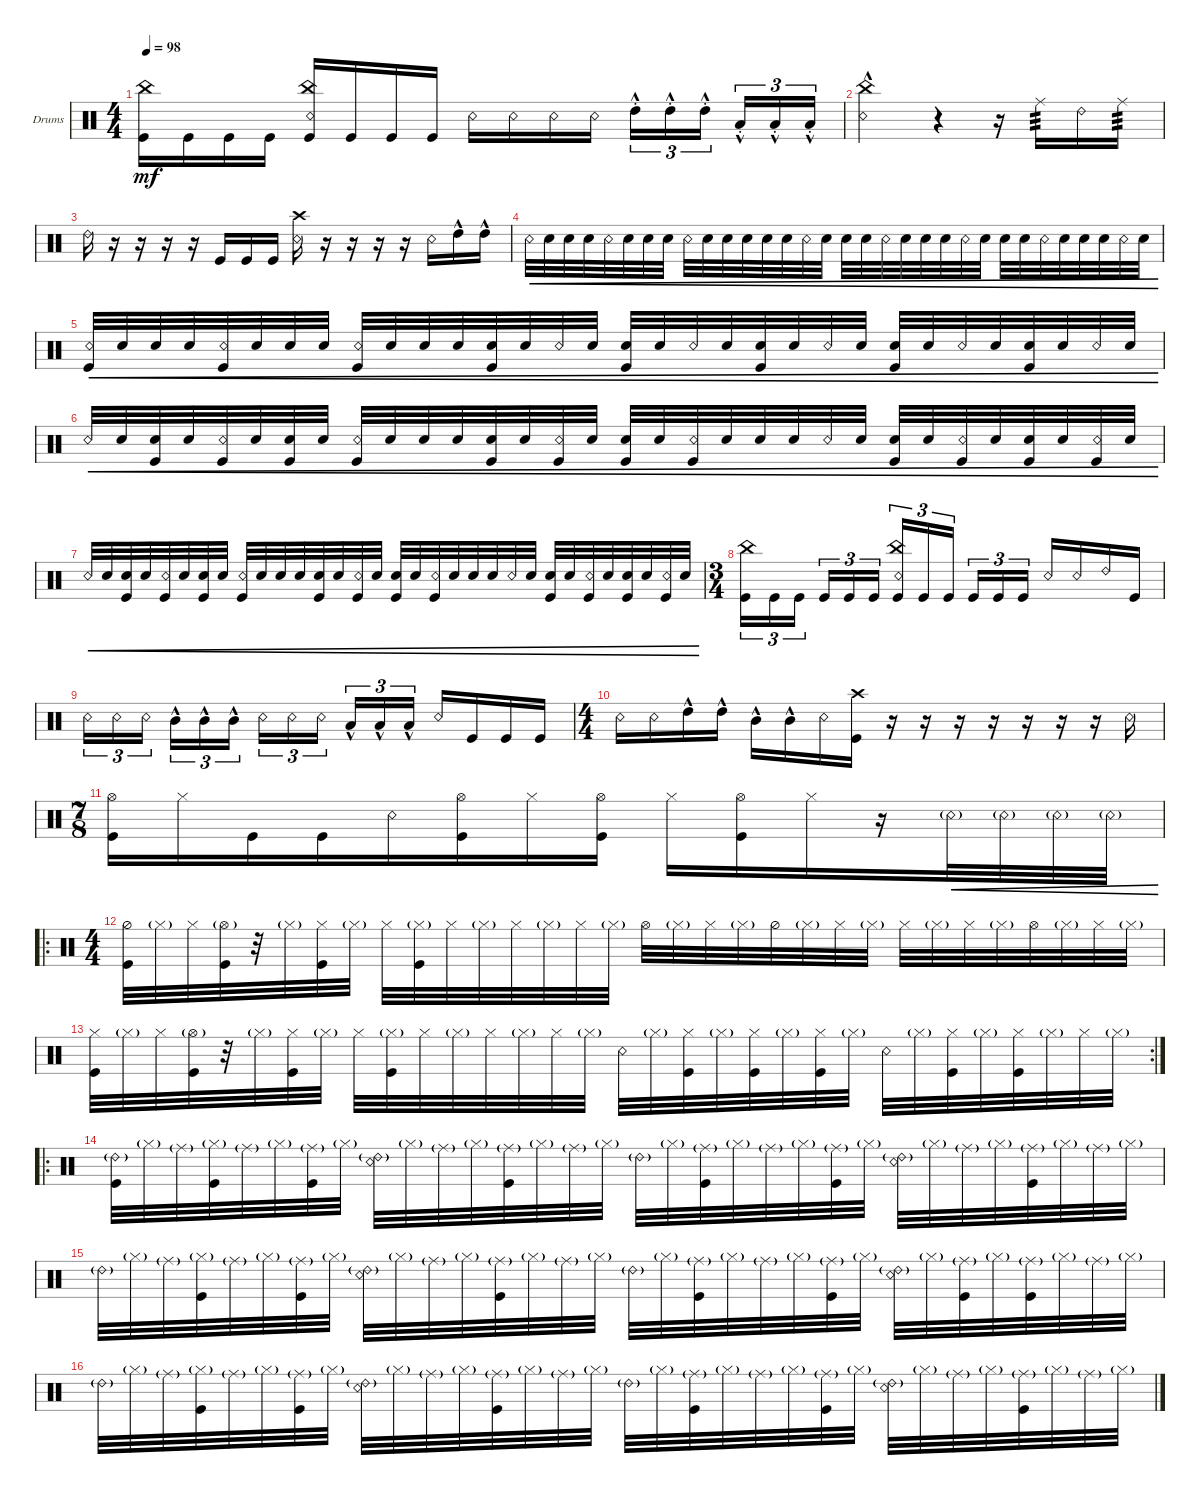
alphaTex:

\defaultSystemsLayout 4
\bracketExtendMode groupsimilarinstruments
\multiBarRest
\firstSystemTrackNameOrientation horizontal
\otherSystemsTrackNameOrientation horizontal
\track ("Drumkit" "Drums") {instrument percussion}
\staff {score}
\articulation defaults
\ts (4 4)
\tempo 98
\clef neutral
\ks c
("Kick (hit)" "China (hit)").16{dy mf} "Kick (hit)".16 "Kick (hit)".16 "Kick (hit)".16 ("Kick (hit)" "China (hit)" "Snare (rim shot)").16 "Kick (hit)".16 "Kick (hit)".16 "Kick (hit)".16 "Snare (rim shot)".16 "Snare (rim shot)".16 "Snare (rim shot)".16 "Snare (rim shot)".16 "High Tom (hit)"{hac st}.16{tu (3 2)} "High Tom (hit)"{hac st}.16{tu (3 2)} "High Tom (hit)"{hac st}.16{tu (3 2)} "Low Tom (hit)"{hac st}.16{tu (3 2)} "Low Tom (hit)"{hac st}.16{tu (3 2)} "Low Tom (hit)"{hac st}.16{tu (3 2)} |
("Snare (rim shot)"{hac} "China (hit)").2 r.4 r.16 "Ride (middle)".16{tp 3} "Ride (bell) 2".16 "Ride (middle)".16{tp 3} |
"Ride (bell) 2".16 r.16 r.16 r.16 r.16 "Kick (hit)".16 "Kick (hit)".16 "Kick (hit)".16 ("Snare (rim shot)" "Crash high (hit)").16 r.16 r.16 r.16 r.16 "Snare (rim shot)".16 "High Tom (hit)"{hac}.16 "High Tom (hit)"{hac}.16 |
"Snare (rim shot)".32{cre} "Snare (hit) 2".32{cre} "Snare (hit) 2".32{cre} "Snare (hit) 2".32{cre} "Snare (rim shot)".32{cre} "Snare (hit) 2".32{cre} "Snare (hit) 2".32{cre} "Snare (hit) 2".32{cre} "Snare (rim shot)".32{cre} "Snare (hit) 2".32{cre} "Snare (hit) 2".32{cre} "Snare (hit) 2".32{cre} "Snare (hit) 2".32{cre} "Snare (hit) 2".32{cre} "Snare (rim shot)".32{cre} "Snare (hit) 2".32{cre} "Snare (hit) 2".32{cre} "Snare (hit) 2".32{cre} "Snare (rim shot)".32{cre} "Snare (hit) 2".32{cre} "Snare (hit) 2".32{cre} "Snare (hit) 2".32{cre} "Snare (rim shot)".32{cre} "Snare (hit) 2".32{cre} "Snare (hit) 2".32{cre} "Snare (hit) 2".32{cre} "Snare (rim shot)".32{cre} "Snare (hit) 2".32{cre} "Snare (hit) 2".32{cre} "Snare (hit) 2".32{cre} "Snare (rim shot)".32{cre} "Snare (hit) 2".32{cre} |
("Snare (rim shot)" "Kick (hit)").32{cre} "Snare (hit) 2".32{cre} "Snare (hit) 2".32{cre} "Snare (hit) 2".32{cre} ("Snare (rim shot)" "Kick (hit)").32{cre} "Snare (hit) 2".32{cre} "Snare (hit) 2".32{cre} "Snare (hit) 2".32{cre} ("Snare (rim shot)" "Kick (hit)").32{cre} "Snare (hit) 2".32{cre} "Snare (hit) 2".32{cre} "Snare (hit) 2".32{cre} ("Snare (hit) 2" "Kick (hit)").32{cre} "Snare (hit) 2".32{cre} "Snare (rim shot)".32{cre} "Snare (hit) 2".32{cre} ("Snare (hit) 2" "Kick (hit)").32{cre} "Snare (hit) 2".32{cre} "Snare (rim shot)".32{cre} "Snare (hit) 2".32{cre} ("Snare (hit) 2" "Kick (hit)").32{cre} "Snare (hit) 2".32{cre} "Snare (rim shot)".32{cre} "Snare (hit) 2".32{cre} ("Snare (hit) 2" "Kick (hit)").32{cre} "Snare (hit) 2".32{cre} "Snare (rim shot)".32{cre} "Snare (hit) 2".32{cre} ("Snare (hit) 2" "Kick (hit)").32{cre} "Snare (hit) 2".32{cre} "Snare (rim shot)".32{cre} "Snare (hit) 2".32{cre} |
"Snare (rim shot)".32{cre} "Snare (hit) 2".32{cre} ("Snare (hit) 2" "Kick (hit)").32{cre} "Snare (hit) 2".32{cre} ("Snare (rim shot)" "Kick (hit)").32{cre} "Snare (hit) 2".32{cre} ("Snare (hit) 2" "Kick (hit)").32{cre} "Snare (hit) 2".32{cre} ("Snare (rim shot)" "Kick (hit)").32{cre} "Snare (hit) 2".32{cre} "Snare (hit) 2".32{cre} "Snare (hit) 2".32{cre} ("Snare (hit) 2" "Kick (hit)").32{cre} "Snare (hit) 2".32{cre} ("Snare (rim shot)" "Kick (hit)").32{cre} "Snare (hit) 2".32{cre} ("Snare (hit) 2" "Kick (hit)").32{cre} "Snare (hit) 2".32{cre} ("Snare (rim shot)" "Kick (hit)").32{cre} "Snare (hit) 2".32{cre} "Snare (hit) 2".32{cre} "Snare (hit) 2".32{cre} "Snare (rim shot)".32{cre} "Snare (hit) 2".32{cre} ("Snare (hit) 2" "Kick (hit)").32{cre} "Snare (hit) 2".32{cre} ("Snare (rim shot)" "Kick (hit)").32{cre} "Snare (hit) 2".32{cre} ("Snare (hit) 2" "Kick (hit)").32{cre} "Snare (hit) 2".32{cre} ("Snare (rim shot)" "Kick (hit)").32{cre} "Snare (hit) 2".32{cre} |
"Snare (rim shot)".32{cre} "Snare (hit) 2".32{cre} ("Snare (hit) 2" "Kick (hit)").32{cre} "Snare (hit) 2".32{cre} ("Snare (rim shot)" "Kick (hit)").32{cre} "Snare (hit) 2".32{cre} ("Snare (hit) 2" "Kick (hit)").32{cre} "Snare (hit) 2".32{cre} ("Snare (rim shot)" "Kick (hit)").32{cre} "Snare (hit) 2".32{cre} "Snare (hit) 2".32{cre} "Snare (hit) 2".32{cre} ("Snare (hit) 2" "Kick (hit)").32{cre} "Snare (hit) 2".32{cre} ("Snare (rim shot)" "Kick (hit)").32{cre} "Snare (hit) 2".32{cre} ("Snare (hit) 2" "Kick (hit)").32{cre} "Snare (hit) 2".32{cre} ("Snare (rim shot)" "Kick (hit)").32{cre} "Snare (hit) 2".32{cre} "Snare (hit) 2".32{cre} "Snare (hit) 2".32{cre} "Snare (rim shot)".32{cre} "Snare (hit) 2".32{cre} ("Snare (hit) 2" "Kick (hit)").32{cre} "Snare (hit) 2".32{cre} ("Snare (rim shot)" "Kick (hit)").32{cre} "Snare (hit) 2".32{cre} ("Snare (hit) 2" "Kick (hit)").32{cre} "Snare (hit) 2".32{cre} ("Snare (rim shot)" "Kick (hit)").32{cre} "Snare (hit) 2".32{cre} |
\ts (3 4)
("Kick (hit)" "China (hit)").16{tu (3 2)} "Kick (hit)".16{tu (3 2)} "Kick (hit)".16{tu (3 2)} "Kick (hit)".16{tu (3 2)} "Kick (hit)".16{tu (3 2)} "Kick (hit)".16{tu (3 2)} ("Kick (hit)" "China (hit)" "Snare (rim shot)").16{tu (3 2)} "Kick (hit)".16{tu (3 2)} "Kick (hit)".16{tu (3 2)} "Kick (hit)".16{tu (3 2)} "Kick (hit)".16{tu (3 2)} "Kick (hit)".16{tu (3 2)} "Snare (rim shot)".16 "Snare (rim shot)".16 "Ride (bell) 2".16 "Kick (hit)".16 |
"Snare (rim shot)".16{tu (3 2)} "Snare (rim shot)".16{tu (3 2)} "Snare (rim shot)".16{tu (3 2)} "Mid Tom (hit)"{hac}.16{tu (3 2)} "Mid Tom (hit)"{hac}.16{tu (3 2)} "Mid Tom (hit)"{hac}.16{tu (3 2)} "Snare (rim shot)".16{tu (3 2)} "Snare (rim shot)".16{tu (3 2)} "Snare (rim shot)".16{tu (3 2)} "Low Tom (hit)"{hac}.16{tu (3 2)} "Low Tom (hit)"{hac}.16{tu (3 2)} "Low Tom (hit)"{hac}.16{tu (3 2)} "Snare (rim shot)".16 "Kick (hit)".16 "Kick (hit)".16 "Kick (hit)".16 |
\ts (4 4)
"Snare (rim shot)".16 "Snare (rim shot)".16 "High Tom (hit)"{hac}.16 "High Tom (hit)"{hac}.16 "Mid Tom (hit)"{hac}.16 "Mid Tom (hit)"{hac}.16 "Snare (rim shot)".16 ("Crash high (hit)" "Kick (hit)").16 r.16 r.16 r.16 r.16 r.16 r.16 r.16 "Snare (rim shot)".16 |
\ts (7 8)
("Kick (hit)" "Hi-Hat (open)").16 "Hi-Hat (closed)".16 "Kick (hit)".16 "Kick (hit)".16 "Snare (rim shot)".16 ("Kick (hit)" "Hi-Hat (open)").16 "Hi-Hat (closed)".16 ("Kick (hit)" "Hi-Hat (open)").16 "Hi-Hat (closed)".16 ("Kick (hit)" "Hi-Hat (open)").16 "Hi-Hat (closed)".16 r.16 "Snare (rim shot)"{g}.32{cre} "Snare (rim shot)"{g}.32{cre} "Snare (rim shot)"{g}.32{cre} "Snare (rim shot)"{g}.32{cre} |
\ro
\ts (4 4)
("Hi-Hat (half)" "Kick (hit)").32 "Hi-Hat (closed)"{g}.32 "Hi-Hat (closed)".32 ("Hi-Hat (open)"{g} "Kick (hit)").32 r.32 "Hi-Hat (closed)"{g}.32 ("Hi-Hat (closed)" "Kick (hit)").32 "Hi-Hat (closed)"{g}.32 "Hi-Hat (closed)".32 ("Hi-Hat (closed)"{g} "Kick (hit)").32 "Hi-Hat (closed)".32 "Hi-Hat (closed)"{g}.32 "Hi-Hat (closed)".32 "Hi-Hat (closed)"{g}.32 "Hi-Hat (closed)".32 "Hi-Hat (closed)"{g}.32 "Hi-Hat (open)".32 "Hi-Hat (closed)"{g}.32 "Hi-Hat (closed)".32 "Hi-Hat (closed)"{g}.32 "Hi-Hat (half)".32 "Hi-Hat (closed)"{g}.32 "Hi-Hat (closed)".32 "Hi-Hat (closed)"{g}.32 "Hi-Hat (closed)".32 "Hi-Hat (closed)"{g}.32 "Hi-Hat (closed)".32 "Hi-Hat (closed)"{g}.32 "Hi-Hat (open)".32 "Hi-Hat (closed)"{g}.32 "Hi-Hat (closed)".32 "Hi-Hat (closed)"{g}.32 |
\rc 2
("Hi-Hat (closed)" "Kick (hit)").32 "Hi-Hat (closed)"{g}.32 "Hi-Hat (closed)".32 ("Hi-Hat (open)"{g} "Kick (hit)").32 r.32 "Hi-Hat (closed)"{g}.32 ("Hi-Hat (closed)" "Kick (hit)").32 "Hi-Hat (closed)"{g}.32 "Hi-Hat (closed)".32 ("Hi-Hat (closed)"{g} "Kick (hit)").32 "Hi-Hat (closed)".32 "Hi-Hat (closed)"{g}.32 "Hi-Hat (closed)".32 "Hi-Hat (closed)"{g}.32 "Hi-Hat (closed)".32 "Hi-Hat (closed)"{g}.32 "Snare (rim shot)".32 "Hi-Hat (closed)"{g}.32 ("Hi-Hat (closed)" "Kick (hit)").32 "Hi-Hat (closed)"{g}.32 ("Hi-Hat (closed)" "Kick (hit)").32 "Hi-Hat (closed)"{g}.32 ("Hi-Hat (closed)" "Kick (hit)").32 "Hi-Hat (closed)"{g}.32 "Snare (rim shot)".32 "Hi-Hat (closed)"{g}.32 ("Hi-Hat (closed)" "Kick (hit)").32 "Hi-Hat (closed)"{g}.32 ("Hi-Hat (closed)" "Kick (hit)").32 "Hi-Hat (closed)"{g}.32 "Hi-Hat (closed)".32 "Hi-Hat (closed)"{g}.32 |
\ro
("Ride (bell) 2"{g} "Kick (hit)").32 "Hi-Hat (closed)"{g}.32 "Ride (middle)"{g}.32 ("Hi-Hat (closed)"{g} "Kick (hit)").32 "Ride (middle)"{g}.32 "Hi-Hat (closed)"{g}.32 ("Ride (middle)"{g} "Kick (hit)").32 "Hi-Hat (closed)"{g}.32 ("Ride (bell) 2"{g} "Snare (rim shot)").32 "Hi-Hat (closed)"{g}.32 "Ride (middle)"{g}.32 "Hi-Hat (closed)"{g}.32 ("Ride (middle)"{g} "Kick (hit)").32 "Hi-Hat (closed)"{g}.32 "Ride (middle)"{g}.32 "Hi-Hat (closed)"{g}.32 "Ride (bell) 2"{g}.32 "Hi-Hat (closed)"{g}.32 ("Ride (middle)"{g} "Kick (hit)").32 "Hi-Hat (closed)"{g}.32 "Ride (middle)"{g}.32 "Hi-Hat (closed)"{g}.32 ("Ride (middle)"{g} "Kick (hit)").32 "Hi-Hat (closed)"{g}.32 ("Ride (bell) 2"{g} "Snare (rim shot)").32 "Hi-Hat (closed)"{g}.32 "Ride (middle)"{g}.32 "Hi-Hat (closed)"{g}.32 ("Ride (middle)"{g} "Kick (hit)").32 "Hi-Hat (closed)"{g}.32 "Ride (middle)"{g}.32 "Hi-Hat (closed)"{g}.32 |
"Ride (bell) 2"{g}.32 "Hi-Hat (closed)"{g}.32 "Ride (middle)"{g}.32 ("Hi-Hat (closed)"{g} "Kick (hit)").32 "Ride (middle)"{g}.32 "Hi-Hat (closed)"{g}.32 ("Ride (middle)"{g} "Kick (hit)").32 "Hi-Hat (closed)"{g}.32 ("Ride (bell) 2"{g} "Snare (rim shot)").32 "Hi-Hat (closed)"{g}.32 "Ride (middle)"{g}.32 "Hi-Hat (closed)"{g}.32 ("Ride (middle)"{g} "Kick (hit)").32 "Hi-Hat (closed)"{g}.32 "Ride (middle)"{g}.32 "Hi-Hat (closed)"{g}.32 "Ride (bell) 2"{g}.32 "Hi-Hat (closed)"{g}.32 ("Ride (middle)"{g} "Kick (hit)").32 "Hi-Hat (closed)"{g}.32 "Ride (middle)"{g}.32 "Hi-Hat (closed)"{g}.32 ("Ride (middle)"{g} "Kick (hit)").32 "Hi-Hat (closed)"{g}.32 ("Ride (bell) 2"{g} "Snare (rim shot)").32 "Hi-Hat (closed)"{g}.32 ("Ride (middle)"{g} "Kick (hit)").32 "Hi-Hat (closed)"{g}.32 ("Ride (middle)"{g} "Kick (hit)").32 "Hi-Hat (closed)"{g}.32 "Ride (middle)"{g}.32 "Hi-Hat (closed)"{g}.32 |
"Ride (bell) 2"{g}.32 "Hi-Hat (closed)"{g}.32 "Ride (middle)"{g}.32 ("Hi-Hat (closed)"{g} "Kick (hit)").32 "Ride (middle)"{g}.32 "Hi-Hat (closed)"{g}.32 ("Ride (middle)"{g} "Kick (hit)").32 "Hi-Hat (closed)"{g}.32 ("Ride (bell) 2"{g} "Snare (rim shot)").32 "Hi-Hat (closed)"{g}.32 "Ride (middle)"{g}.32 "Hi-Hat (closed)"{g}.32 ("Ride (middle)"{g} "Kick (hit)").32 "Hi-Hat (closed)"{g}.32 "Ride (middle)"{g}.32 "Hi-Hat (closed)"{g}.32 "Ride (bell) 2"{g}.32 "Hi-Hat (closed)"{g}.32 ("Ride (middle)"{g} "Kick (hit)").32 "Hi-Hat (closed)"{g}.32 "Ride (middle)"{g}.32 "Hi-Hat (closed)"{g}.32 ("Ride (middle)"{g} "Kick (hit)").32 "Hi-Hat (closed)"{g}.32 ("Ride (bell) 2"{g} "Snare (rim shot)").32 "Hi-Hat (closed)"{g}.32 "Ride (middle)"{g}.32 "Hi-Hat (closed)"{g}.32 ("Ride (middle)"{g} "Kick (hit)").32 "Hi-Hat (closed)"{g}.32 "Ride (middle)"{g}.32 "Hi-Hat (closed)"{g}.32
